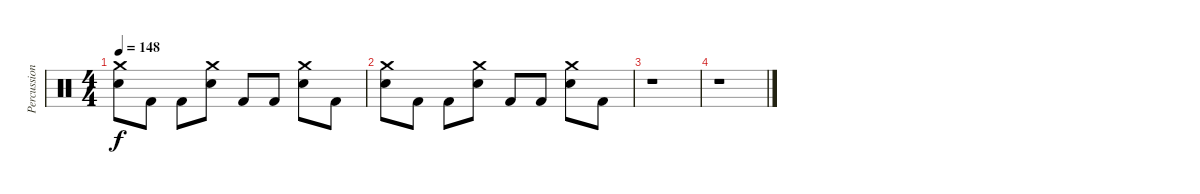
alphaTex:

\track ("Percussion - Dennis Wolfe" "Percussion") {instrument percussion}
\staff {score}
\articulation defaults
\ts (4 4)
\tempo 148
\clef neutral
\ks c
("Crash medium (hit)" "Snare (hit) 2").8{dy f} "Kick (hit) 2".8 "Kick (hit) 2".8 ("Crash medium (hit)" "Snare (hit) 2").8 "Kick (hit) 2".8 "Kick (hit) 2".8 ("Crash medium (hit)" "Snare (hit) 2").8 "Kick (hit) 2".8 |
("Crash medium (hit)" "Snare (hit) 2").8 "Kick (hit) 2".8 "Kick (hit) 2".8 ("Crash medium (hit)" "Snare (hit) 2").8 "Kick (hit) 2".8 "Kick (hit) 2".8 ("Crash medium (hit)" "Snare (hit) 2").8 "Kick (hit) 2".8 |
r.1 |
r.1
